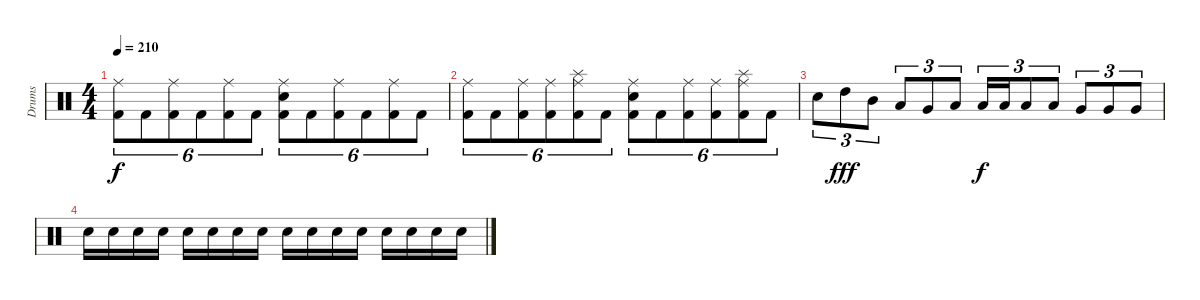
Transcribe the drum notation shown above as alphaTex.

\track ("Drums" "Drums") {instrument percussion}
\staff {score}
\articulation defaults
\ts (4 4)
\tempo 210
\clef neutral
\ks c
("Kick (hit) 2" "Ride (middle)").8{tu (6 4) dy f} "Kick (hit) 2".8{tu (6 4)} ("Kick (hit) 2" "Ride (middle)").8{tu (6 4)} "Kick (hit) 2".8{tu (6 4)} ("Kick (hit) 2" "Ride (middle)").8{tu (6 4)} "Kick (hit) 2".8{tu (6 4)} ("Kick (hit) 2" "Snare (hit) 2" "Ride (middle)").8{tu (6 4)} "Kick (hit) 2".8{tu (6 4)} ("Kick (hit) 2" "Ride (middle)").8{tu (6 4)} "Kick (hit) 2".8{tu (6 4)} ("Kick (hit) 2" "Ride (middle)").8{tu (6 4)} "Kick (hit) 2".8{tu (6 4)} |
("Kick (hit) 2" "Ride (middle)").8{tu (6 4)} "Kick (hit) 2".8{tu (6 4)} ("Kick (hit) 2" "Ride (middle)").8{tu (6 4)} ("Kick (hit) 2" "Ride (middle)").8{tu (6 4)} ("Kick (hit) 2" "Ride (middle)" "Splash (hit)").8{tu (6 4)} "Kick (hit) 2".8{tu (6 4)} ("Kick (hit) 2" "Snare (hit) 2" "Ride (middle)").8{tu (6 4)} "Kick (hit) 2".8{tu (6 4)} ("Kick (hit) 2" "Ride (middle)").8{tu (6 4)} ("Kick (hit) 2" "Ride (middle)").8{tu (6 4)} ("Kick (hit) 2" "Ride (middle)" "Splash (hit)").8{tu (6 4)} "Kick (hit) 2".8{tu (6 4)} |
"Electric Snare (hit)".8{tu (3 2)} "High Tom (hit)".8{tu (3 2) dy fff} "Mid Tom (hit)".8{tu (3 2)} "Low Tom (hit)".8{tu (3 2)} "Very Low Tom (hit)".8{tu (3 2)} "Low Floor Tom (hit)".8{tu (3 2)} "Low Tom (hit)".16{tu (3 2) dy f} "Low Tom (hit)".16{tu (3 2)} "Low Tom (hit)".8{tu (3 2)} "Low Tom (hit)".8{tu (3 2)} "Very Low Tom (hit)".8{tu (3 2)} "Very Low Tom (hit)".8{tu (3 2)} "Very Low Tom (hit)".8{tu (3 2)} |
"Electric Snare (hit)".16 "Electric Snare (hit)".16 "Electric Snare (hit)".16 "Electric Snare (hit)".16 "Electric Snare (hit)".16 "Electric Snare (hit)".16 "Electric Snare (hit)".16 "Electric Snare (hit)".16 "Electric Snare (hit)".16 "Electric Snare (hit)".16 "Electric Snare (hit)".16 "Electric Snare (hit)".16 "Electric Snare (hit)".16 "Electric Snare (hit)".16 "Electric Snare (hit)".16 "Electric Snare (hit)".16
